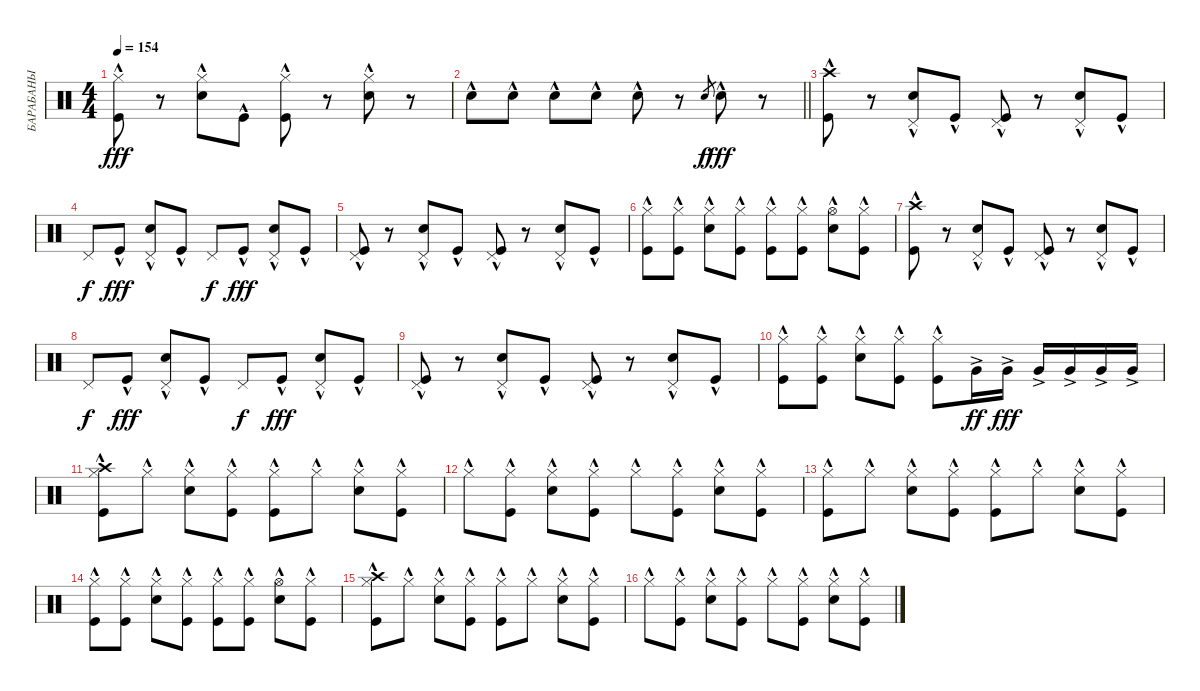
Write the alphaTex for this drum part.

\track ("БАРАБАНЫ" "БАРАБАНЫ") {instrument percussion}
\staff {score}
\articulation defaults
\ts (4 4)
\tempo 154
\clef neutral
\ks c
("Hi-Hat (closed)"{hac} "Kick (hit)"{hac}).8{dy fff} r.8 ("Hi-Hat (closed)"{hac} "Snare (hit) 2"{hac}).8 "Kick (hit)"{hac}.8 ("Hi-Hat (closed)"{hac} "Kick (hit)"{hac}).8 r.8 ("Hi-Hat (closed)"{hac} "Snare (hit) 2"{hac}).8 r.8 |
\barLineRight lightlight "Snare (hit) 2"{hac}.8 "Snare (hit) 2"{hac}.8 "Snare (hit) 2"{hac}.8 "Snare (hit) 2"{hac}.8 "Snare (hit) 2"{hac}.8
r.8 "Snare (hit) 2".8{gr dy f} "Snare (hit) 2"{hac}.8{dy fff} r.8 |
("Crash high (hit)"{hac} "Kick (hit)"{hac}).8 r.8 ("Pedal Hi-Hat (hit)" "Snare (hit) 2"{hac}).8 "Kick (hit)"{hac}.8 ("Pedal Hi-Hat (hit)" "Kick (hit)"{hac}).8 r.8 ("Pedal Hi-Hat (hit)" "Snare (hit) 2"{hac}).8 "Kick (hit)"{hac}.8 |
"Pedal Hi-Hat (hit)".8{dy f} "Kick (hit)"{hac}.8{dy fff} ("Pedal Hi-Hat (hit)" "Snare (hit) 2"{hac}).8 "Kick (hit)"{hac}.8 "Pedal Hi-Hat (hit)".8{dy f} "Kick (hit)"{hac}.8{dy fff} ("Pedal Hi-Hat (hit)" "Snare (hit) 2"{hac}).8 "Kick (hit)"{hac}.8 |
("Pedal Hi-Hat (hit)" "Kick (hit)"{hac}).8 r.8 ("Pedal Hi-Hat (hit)" "Snare (hit) 2"{hac}).8 "Kick (hit)"{hac}.8 ("Pedal Hi-Hat (hit)" "Kick (hit)"{hac}).8 r.8 ("Pedal Hi-Hat (hit)" "Snare (hit) 2"{hac}).8 "Kick (hit)"{hac}.8 |
("Hi-Hat (closed)"{hac} "Kick (hit)"{hac}).8 ("Hi-Hat (closed)"{hac} "Kick (hit)"{hac}).8 ("Hi-Hat (closed)"{hac} "Snare (hit) 2"{hac}).8 ("Hi-Hat (closed)"{hac} "Kick (hit)"{hac}).8 ("Hi-Hat (closed)"{hac} "Kick (hit)"{hac}).8 ("Hi-Hat (closed)"{hac} "Kick (hit)"{hac}).8 ("Hi-Hat (open)"{hac} "Snare (hit) 2"{hac}).8 ("Hi-Hat (closed)"{hac} "Kick (hit)"{hac}).8 |
("Crash high (hit)"{hac} "Kick (hit)"{hac}).8 r.8 ("Pedal Hi-Hat (hit)" "Snare (hit) 2"{hac}).8 "Kick (hit)"{hac}.8 ("Pedal Hi-Hat (hit)" "Kick (hit)"{hac}).8 r.8 ("Pedal Hi-Hat (hit)" "Snare (hit) 2"{hac}).8 "Kick (hit)"{hac}.8 |
"Pedal Hi-Hat (hit)".8{dy f} "Kick (hit)"{hac}.8{dy fff} ("Pedal Hi-Hat (hit)" "Snare (hit) 2"{hac}).8 "Kick (hit)"{hac}.8 "Pedal Hi-Hat (hit)".8{dy f} "Kick (hit)"{hac}.8{dy fff} ("Pedal Hi-Hat (hit)" "Snare (hit) 2"{hac}).8 "Kick (hit)"{hac}.8 |
("Pedal Hi-Hat (hit)" "Kick (hit)"{hac}).8 r.8 ("Pedal Hi-Hat (hit)" "Snare (hit) 2"{hac}).8 "Kick (hit)"{hac}.8 ("Pedal Hi-Hat (hit)" "Kick (hit)"{hac}).8 r.8 ("Pedal Hi-Hat (hit)" "Snare (hit) 2"{hac}).8 "Kick (hit)"{hac}.8 |
("Hi-Hat (closed)"{hac} "Kick (hit)"{hac}).8 ("Hi-Hat (closed)"{hac} "Kick (hit)"{hac}).8 ("Hi-Hat (closed)"{hac} "Snare (hit) 2"{hac}).8 ("Hi-Hat (closed)"{hac} "Kick (hit)"{hac}).8 ("Hi-Hat (closed)"{hac} "Kick (hit)"{hac}).8 "Very Low Tom (hit)"{ac}.16{dy ff} "Very Low Tom (hit)"{ac}.16{dy fff} "Very Low Tom (hit)"{ac}.16 "Very Low Tom (hit)"{ac}.16 "Very Low Tom (hit)"{ac}.16 "Very Low Tom (hit)"{ac}.16 |
("Hi-Hat (closed)"{hac} "Crash high (hit)"{hac} "Kick (hit)"{hac}).8 "Hi-Hat (closed)"{hac}.8 ("Hi-Hat (closed)"{hac} "Snare (hit) 2"{hac}).8 ("Hi-Hat (closed)"{hac} "Kick (hit)"{hac}).8 ("Hi-Hat (closed)"{hac} "Kick (hit)"{hac}).8 "Hi-Hat (closed)"{hac}.8 ("Hi-Hat (closed)"{hac} "Snare (hit) 2"{hac}).8 ("Hi-Hat (closed)"{hac} "Kick (hit)"{hac}).8 |
"Hi-Hat (closed)"{hac}.8 ("Hi-Hat (closed)"{hac} "Kick (hit)"{hac}).8 ("Hi-Hat (closed)"{hac} "Snare (hit) 2"{hac}).8 ("Hi-Hat (closed)"{hac} "Kick (hit)"{hac}).8 "Hi-Hat (closed)"{hac}.8 ("Hi-Hat (closed)"{hac} "Kick (hit)"{hac}).8 ("Hi-Hat (closed)"{hac} "Snare (hit) 2"{hac}).8 ("Hi-Hat (closed)"{hac} "Kick (hit)"{hac}).8 |
("Hi-Hat (closed)"{hac} "Kick (hit)"{hac}).8 "Hi-Hat (closed)"{hac}.8 ("Hi-Hat (closed)"{hac} "Snare (hit) 2"{hac}).8 ("Hi-Hat (closed)"{hac} "Kick (hit)"{hac}).8 ("Hi-Hat (closed)"{hac} "Kick (hit)"{hac}).8 "Hi-Hat (closed)"{hac}.8 ("Hi-Hat (closed)"{hac} "Snare (hit) 2"{hac}).8 ("Hi-Hat (closed)"{hac} "Kick (hit)"{hac}).8 |
("Hi-Hat (closed)"{hac} "Kick (hit)"{hac}).8 ("Hi-Hat (closed)"{hac} "Kick (hit)"{hac}).8 ("Hi-Hat (closed)"{hac} "Snare (hit) 2"{hac}).8 ("Hi-Hat (closed)"{hac} "Kick (hit)"{hac}).8 ("Hi-Hat (closed)"{hac} "Kick (hit)"{hac}).8 ("Hi-Hat (closed)"{hac} "Kick (hit)"{hac}).8 ("Hi-Hat (open)"{hac} "Snare (hit) 2"{hac}).8 ("Hi-Hat (closed)"{hac} "Kick (hit)"{hac}).8 |
("Hi-Hat (closed)"{hac} "Crash high (hit)"{hac} "Kick (hit)"{hac}).8 "Hi-Hat (closed)"{hac}.8 ("Hi-Hat (closed)"{hac} "Snare (hit) 2"{hac}).8 ("Hi-Hat (closed)"{hac} "Kick (hit)"{hac}).8 ("Hi-Hat (closed)"{hac} "Kick (hit)"{hac}).8 "Hi-Hat (closed)"{hac}.8 ("Hi-Hat (closed)"{hac} "Snare (hit) 2"{hac}).8 ("Hi-Hat (closed)"{hac} "Kick (hit)"{hac}).8 |
"Hi-Hat (closed)"{hac}.8 ("Hi-Hat (closed)"{hac} "Kick (hit)"{hac}).8 ("Hi-Hat (closed)"{hac} "Snare (hit) 2"{hac}).8 ("Hi-Hat (closed)"{hac} "Kick (hit)"{hac}).8 "Hi-Hat (closed)"{hac}.8 ("Hi-Hat (closed)"{hac} "Kick (hit)"{hac}).8 ("Hi-Hat (closed)"{hac} "Snare (hit) 2"{hac}).8 ("Hi-Hat (closed)"{hac} "Kick (hit)"{hac}).8
